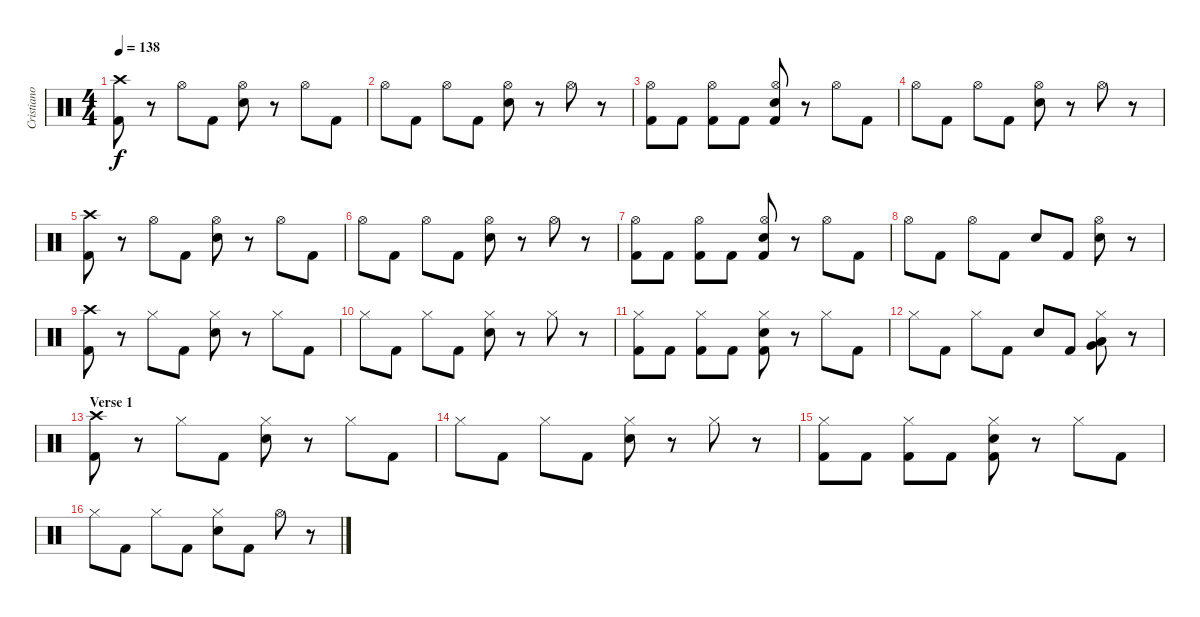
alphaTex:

\track ("Cristiano Mozatti" "Cristiano ") {instrument percussion}
\staff {score}
\articulation defaults
\ts (4 4)
\tempo 138
\clef neutral
\ks c
("Crash high (hit)" "Kick (hit) 2").8{dy f} r.8 "Hi-Hat (open)".8 "Kick (hit) 2".8 ("Hi-Hat (open)" "Snare (hit) 2").8 r.8 "Hi-Hat (open)".8 "Kick (hit) 2".8 |
"Hi-Hat (open)".8 "Kick (hit) 2".8 "Hi-Hat (open)".8 "Kick (hit) 2".8 ("Hi-Hat (open)" "Snare (hit) 2").8 r.8 "Hi-Hat (open)".8 r.8 |
("Hi-Hat (open)" "Kick (hit) 2").8 "Kick (hit) 2".8 ("Hi-Hat (open)" "Kick (hit) 2").8 "Kick (hit) 2".8 ("Hi-Hat (open)" "Snare (hit) 2" "Kick (hit) 2").8 r.8 "Hi-Hat (open)".8 "Kick (hit) 2".8 |
"Hi-Hat (open)".8 "Kick (hit) 2".8 "Hi-Hat (open)".8 "Kick (hit) 2".8 ("Hi-Hat (open)" "Snare (hit) 2").8 r.8 "Hi-Hat (open)".8 r.8 |
("Crash high (hit)" "Kick (hit) 2").8 r.8 "Hi-Hat (open)".8 "Kick (hit) 2".8 ("Hi-Hat (open)" "Snare (hit) 2").8 r.8 "Hi-Hat (open)".8 "Kick (hit) 2".8 |
"Hi-Hat (open)".8 "Kick (hit) 2".8 "Hi-Hat (open)".8 "Kick (hit) 2".8 ("Hi-Hat (open)" "Snare (hit) 2").8 r.8 "Hi-Hat (open)".8 r.8 |
("Hi-Hat (open)" "Kick (hit) 2").8 "Kick (hit) 2".8 ("Hi-Hat (open)" "Kick (hit) 2").8 "Kick (hit) 2".8 ("Hi-Hat (open)" "Snare (hit) 2" "Kick (hit) 2").8 r.8 "Hi-Hat (open)".8 "Kick (hit) 2".8 |
"Hi-Hat (open)".8 "Kick (hit) 2".8 "Hi-Hat (open)".8 "Kick (hit) 2".8 "Snare (hit) 2".8 "Kick (hit) 2".8 ("Hi-Hat (open)" "Snare (hit) 2").8 r.8 |
("Crash high (hit)" "Kick (hit) 2").8 r.8 "Hi-Hat (closed)".8 "Kick (hit) 2".8 ("Hi-Hat (closed)" "Snare (hit) 2").8 r.8 "Hi-Hat (closed)".8 "Kick (hit) 2".8 |
"Hi-Hat (closed)".8 "Kick (hit) 2".8 "Hi-Hat (closed)".8 "Kick (hit) 2".8 ("Hi-Hat (closed)" "Snare (hit) 2").8 r.8 "Hi-Hat (closed)".8 r.8 |
("Hi-Hat (closed)" "Kick (hit) 2").8 "Kick (hit) 2".8 ("Hi-Hat (closed)" "Kick (hit) 2").8 "Kick (hit) 2".8 ("Hi-Hat (closed)" "Snare (hit) 2" "Kick (hit) 2").8 r.8 "Hi-Hat (closed)".8 "Kick (hit) 2".8 |
"Hi-Hat (closed)".8 "Kick (hit) 2".8 "Hi-Hat (closed)".8 "Kick (hit) 2".8 "Snare (hit) 2".8 "Kick (hit) 2".8 ("Hi-Hat (closed)" "Low Floor Tom (hit)" "Very Low Tom (hit)").8 r.8 |
\section ("" "Verse 1")
("Crash high (hit)" "Kick (hit) 2").8 r.8 "Hi-Hat (closed)".8 "Kick (hit) 2".8 ("Hi-Hat (closed)" "Snare (hit) 2").8 r.8 "Hi-Hat (closed)".8 "Kick (hit) 2".8 |
"Hi-Hat (closed)".8 "Kick (hit) 2".8 "Hi-Hat (closed)".8 "Kick (hit) 2".8 ("Hi-Hat (closed)" "Snare (hit) 2").8 r.8 "Hi-Hat (closed)".8 r.8 |
("Hi-Hat (closed)" "Kick (hit) 2").8 "Kick (hit) 2".8 ("Hi-Hat (closed)" "Kick (hit) 2").8 "Kick (hit) 2".8 ("Hi-Hat (closed)" "Snare (hit) 2" "Kick (hit) 2").8 r.8 "Hi-Hat (closed)".8 "Kick (hit) 2".8 |
"Hi-Hat (closed)".8 "Kick (hit) 2".8 "Hi-Hat (closed)".8 "Kick (hit) 2".8 ("Hi-Hat (closed)" "Snare (hit) 2").8 "Kick (hit) 2".8 "Hi-Hat (open)".8 r.8
